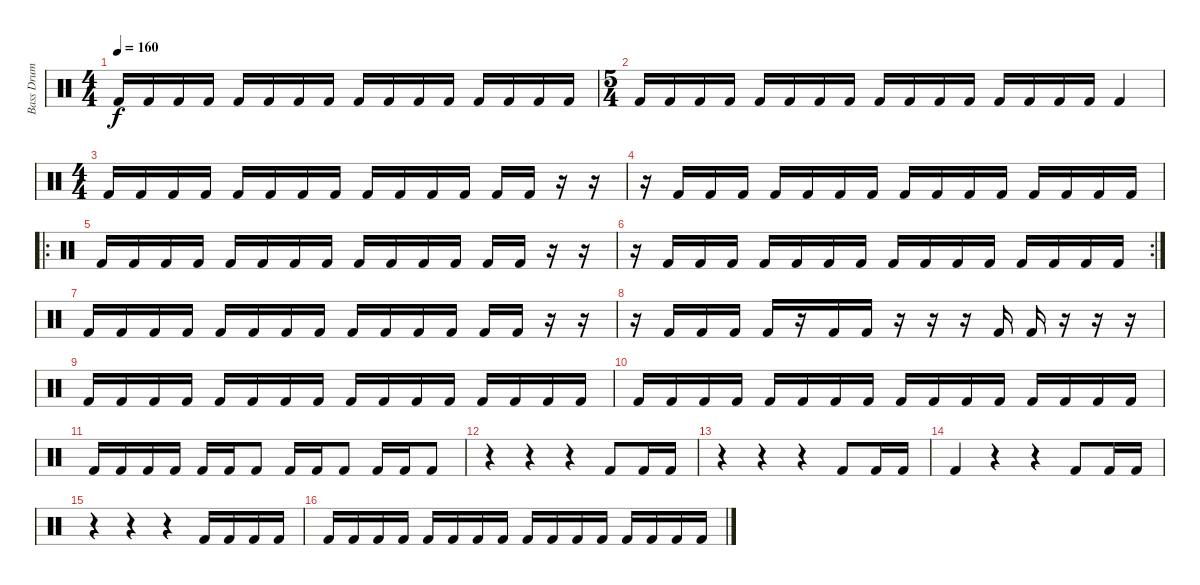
\track ("Bass Drum" "Bass Drum") {instrument percussion}
\staff {score}
\articulation defaults
\ts (4 4)
\tempo 160
\clef neutral
\ks c "Kick (hit) 2".16{dy f} "Kick (hit) 2".16 "Kick (hit) 2".16 "Kick (hit) 2".16 "Kick (hit) 2".16 "Kick (hit) 2".16 "Kick (hit) 2".16 "Kick (hit) 2".16 "Kick (hit) 2".16 "Kick (hit) 2".16 "Kick (hit) 2".16 "Kick (hit) 2".16 "Kick (hit) 2".16 "Kick (hit) 2".16 "Kick (hit) 2".16 "Kick (hit) 2".16
|
\ts (5 4)
"Kick (hit) 2".16 "Kick (hit) 2".16 "Kick (hit) 2".16 "Kick (hit) 2".16 "Kick (hit) 2".16 "Kick (hit) 2".16 "Kick (hit) 2".16 "Kick (hit) 2".16 "Kick (hit) 2".16 "Kick (hit) 2".16 "Kick (hit) 2".16 "Kick (hit) 2".16 "Kick (hit) 2".16 "Kick (hit) 2".16 "Kick (hit) 2".16 "Kick (hit) 2".16 "Kick (hit) 2".4 |
\ts (4 4)
"Kick (hit) 2".16 "Kick (hit) 2".16 "Kick (hit) 2".16 "Kick (hit) 2".16 "Kick (hit) 2".16 "Kick (hit) 2".16 "Kick (hit) 2".16 "Kick (hit) 2".16 "Kick (hit) 2".16 "Kick (hit) 2".16 "Kick (hit) 2".16 "Kick (hit) 2".16 "Kick (hit) 2".16 "Kick (hit) 2".16 r.16 r.16 |
r.16 "Kick (hit) 2".16 "Kick (hit) 2".16 "Kick (hit) 2".16 "Kick (hit) 2".16 "Kick (hit) 2".16 "Kick (hit) 2".16 "Kick (hit) 2".16 "Kick (hit) 2".16 "Kick (hit) 2".16 "Kick (hit) 2".16 "Kick (hit) 2".16 "Kick (hit) 2".16 "Kick (hit) 2".16 "Kick (hit) 2".16 "Kick (hit) 2".16 |
\ro "Kick (hit) 2".16 "Kick (hit) 2".16 "Kick (hit) 2".16 "Kick (hit) 2".16 "Kick (hit) 2".16 "Kick (hit) 2".16 "Kick (hit) 2".16 "Kick (hit) 2".16 "Kick (hit) 2".16 "Kick (hit) 2".16 "Kick (hit) 2".16 "Kick (hit) 2".16 "Kick (hit) 2".16 "Kick (hit) 2".16
r.16 r.16 |
\rc 2
r.16 "Kick (hit) 2".16 "Kick (hit) 2".16 "Kick (hit) 2".16 "Kick (hit) 2".16 "Kick (hit) 2".16 "Kick (hit) 2".16 "Kick (hit) 2".16 "Kick (hit) 2".16 "Kick (hit) 2".16 "Kick (hit) 2".16 "Kick (hit) 2".16 "Kick (hit) 2".16 "Kick (hit) 2".16 "Kick (hit) 2".16 "Kick (hit) 2".16 |
"Kick (hit) 2".16 "Kick (hit) 2".16 "Kick (hit) 2".16 "Kick (hit) 2".16 "Kick (hit) 2".16 "Kick (hit) 2".16 "Kick (hit) 2".16 "Kick (hit) 2".16 "Kick (hit) 2".16 "Kick (hit) 2".16 "Kick (hit) 2".16 "Kick (hit) 2".16 "Kick (hit) 2".16 "Kick (hit) 2".16 r.16 r.16 |
r.16 "Kick (hit) 2".16 "Kick (hit) 2".16 "Kick (hit) 2".16 "Kick (hit) 2".16 r.16 "Kick (hit) 2".16 "Kick (hit) 2".16 r.16 r.16 r.16 "Kick (hit) 2".16 "Kick (hit) 2".16 r.16 r.16 r.16 |
"Kick (hit) 2".16 "Kick (hit) 2".16 "Kick (hit) 2".16 "Kick (hit) 2".16 "Kick (hit) 2".16 "Kick (hit) 2".16 "Kick (hit) 2".16 "Kick (hit) 2".16 "Kick (hit) 2".16 "Kick (hit) 2".16 "Kick (hit) 2".16 "Kick (hit) 2".16 "Kick (hit) 2".16 "Kick (hit) 2".16 "Kick (hit) 2".16 "Kick (hit) 2".16 |
"Kick (hit) 2".16 "Kick (hit) 2".16 "Kick (hit) 2".16 "Kick (hit) 2".16 "Kick (hit) 2".16 "Kick (hit) 2".16 "Kick (hit) 2".16 "Kick (hit) 2".16 "Kick (hit) 2".16 "Kick (hit) 2".16 "Kick (hit) 2".16 "Kick (hit) 2".16 "Kick (hit) 2".16 "Kick (hit) 2".16 "Kick (hit) 2".16 "Kick (hit) 2".16 |
"Kick (hit) 2".16 "Kick (hit) 2".16 "Kick (hit) 2".16 "Kick (hit) 2".16 "Kick (hit) 2".16 "Kick (hit) 2".16 "Kick (hit) 2".8 "Kick (hit) 2".16 "Kick (hit) 2".16 "Kick (hit) 2".8 "Kick (hit) 2".16 "Kick (hit) 2".16 "Kick (hit) 2".8 |
r.4 r.4 r.4 "Kick (hit) 2".8 "Kick (hit) 2".16 "Kick (hit) 2".16 |
r.4 r.4 r.4 "Kick (hit) 2".8 "Kick (hit) 2".16 "Kick (hit) 2".16 |
"Kick (hit) 2".4 r.4 r.4 "Kick (hit) 2".8 "Kick (hit) 2".16 "Kick (hit) 2".16 |
r.4 r.4 r.4 "Kick (hit) 2".16 "Kick (hit) 2".16 "Kick (hit) 2".16 "Kick (hit) 2".16 |
"Kick (hit) 2".16 "Kick (hit) 2".16 "Kick (hit) 2".16 "Kick (hit) 2".16 "Kick (hit) 2".16 "Kick (hit) 2".16 "Kick (hit) 2".16 "Kick (hit) 2".16 "Kick (hit) 2".16 "Kick (hit) 2".16 "Kick (hit) 2".16 "Kick (hit) 2".16 "Kick (hit) 2".16 "Kick (hit) 2".16 "Kick (hit) 2".16 "Kick (hit) 2".16
